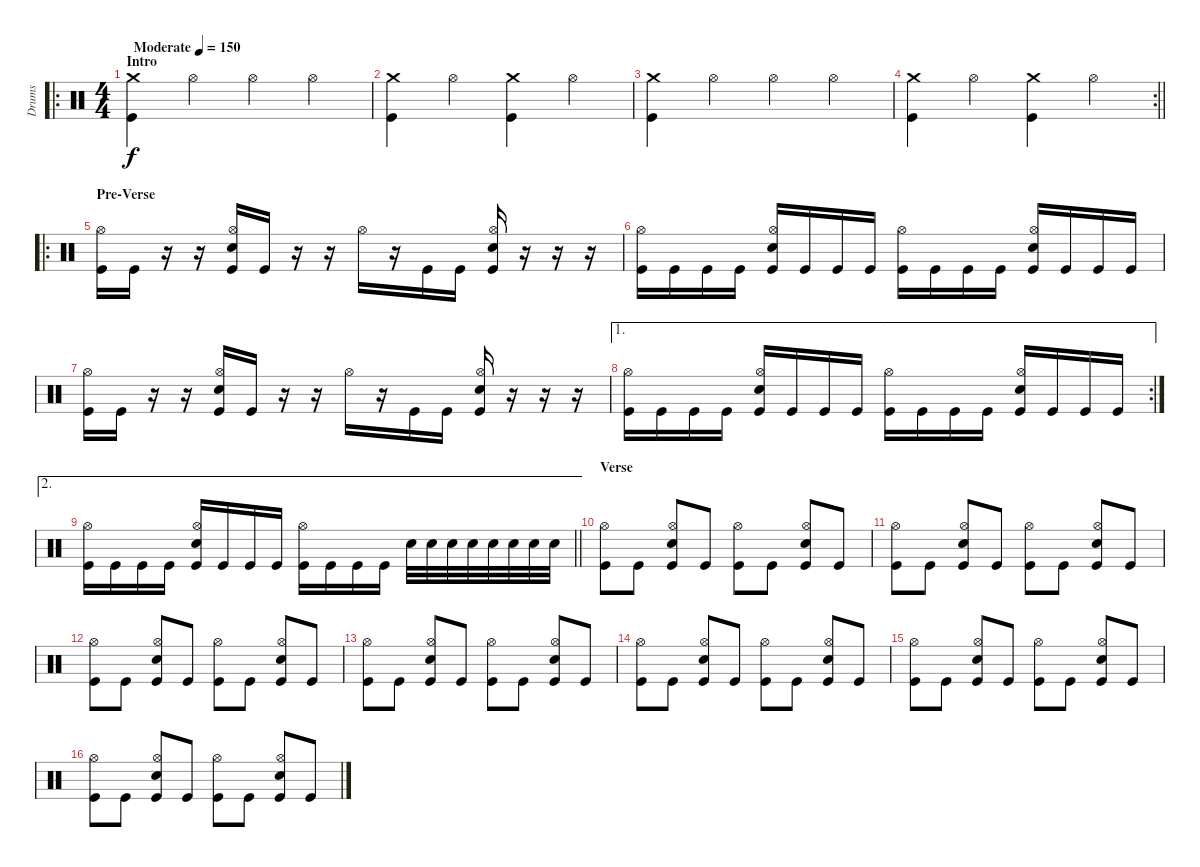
\track ("Drums" "Drums") {instrument percussion}
\staff {score}
\articulation defaults
\ro
\ts (4 4)
\section ("" "Intro")
\tempo (150 "Moderate")
\clef neutral
\ks c
("Crash medium (hit)" "Kick (hit)").4{dy f} "Hi-Hat (open)".4 "Hi-Hat (open)".4 "Hi-Hat (open)".4 |
("Crash medium (hit)" "Kick (hit)").4 "Hi-Hat (open)".4 ("Crash medium (hit)" "Kick (hit)").4 "Hi-Hat (open)".4 |
("Crash medium (hit)" "Kick (hit)").4 "Hi-Hat (open)".4 "Hi-Hat (open)".4 "Hi-Hat (open)".4 |
\rc 2
\barLineRight lightlight
("Crash medium (hit)" "Kick (hit)").4 "Hi-Hat (open)".4 ("Crash medium (hit)" "Kick (hit)").4 "Hi-Hat (open)".4 |
\ro
\section ("" "Pre-Verse")
("Hi-Hat (open)" "Kick (hit)").16 "Kick (hit)".16 r.16 r.16 ("Hi-Hat (open)" "Snare (hit) 2" "Kick (hit)").16 "Kick (hit)".16 r.16 r.16 "Hi-Hat (open)".16 r.16 "Kick (hit)".16 "Kick (hit)".16 ("Hi-Hat (open)" "Snare (hit) 2" "Kick (hit)").16 r.16 r.16 r.16 |
("Hi-Hat (open)" "Kick (hit)").16 "Kick (hit)".16 "Kick (hit)".16 "Kick (hit)".16 ("Hi-Hat (open)" "Snare (hit) 2" "Kick (hit)").16 "Kick (hit)".16 "Kick (hit)".16 "Kick (hit)".16 ("Hi-Hat (open)" "Kick (hit)").16 "Kick (hit)".16 "Kick (hit)".16 "Kick (hit)".16 ("Hi-Hat (open)" "Snare (hit) 2" "Kick (hit)").16 "Kick (hit)".16 "Kick (hit)".16 "Kick (hit)".16 |
("Hi-Hat (open)" "Kick (hit)").16 "Kick (hit)".16 r.16 r.16 ("Hi-Hat (open)" "Snare (hit) 2" "Kick (hit)").16 "Kick (hit)".16 r.16 r.16 "Hi-Hat (open)".16 r.16 "Kick (hit)".16 "Kick (hit)".16 ("Hi-Hat (open)" "Snare (hit) 2" "Kick (hit)").16 r.16 r.16 r.16 |
\ae 1
\rc 2
("Hi-Hat (open)" "Kick (hit)").16 "Kick (hit)".16 "Kick (hit)".16 "Kick (hit)".16 ("Hi-Hat (open)" "Snare (hit) 2" "Kick (hit)").16 "Kick (hit)".16 "Kick (hit)".16 "Kick (hit)".16 ("Hi-Hat (open)" "Kick (hit)").16 "Kick (hit)".16 "Kick (hit)".16 "Kick (hit)".16 ("Hi-Hat (open)" "Snare (hit) 2" "Kick (hit)").16 "Kick (hit)".16 "Kick (hit)".16 "Kick (hit)".16 |
\ae 2
\barLineRight lightlight
("Hi-Hat (open)" "Kick (hit)").16 "Kick (hit)".16 "Kick (hit)".16 "Kick (hit)".16 ("Hi-Hat (open)" "Snare (hit) 2" "Kick (hit)").16 "Kick (hit)".16 "Kick (hit)".16 "Kick (hit)".16 ("Hi-Hat (open)" "Kick (hit)").16 "Kick (hit)".16 "Kick (hit)".16 "Kick (hit)".16 "Snare (hit) 2".32 "Snare (hit) 2".32 "Snare (hit) 2".32 "Snare (hit) 2".32 "Snare (hit) 2".32 "Snare (hit) 2".32 "Snare (hit) 2".32 "Snare (hit) 2".32 |
\section ("" "Verse")
("Hi-Hat (open)" "Kick (hit)").8 "Kick (hit)".8 ("Hi-Hat (open)" "Snare (hit) 2" "Kick (hit)").8 "Kick (hit)".8 ("Hi-Hat (open)" "Kick (hit)").8 "Kick (hit)".8 ("Hi-Hat (open)" "Snare (hit) 2" "Kick (hit)").8 "Kick (hit)".8 |
("Hi-Hat (open)" "Kick (hit)").8 "Kick (hit)".8 ("Hi-Hat (open)" "Snare (hit) 2" "Kick (hit)").8 "Kick (hit)".8 ("Hi-Hat (open)" "Kick (hit)").8 "Kick (hit)".8 ("Hi-Hat (open)" "Snare (hit) 2" "Kick (hit)").8 "Kick (hit)".8 |
("Hi-Hat (open)" "Kick (hit)").8 "Kick (hit)".8 ("Hi-Hat (open)" "Snare (hit) 2" "Kick (hit)").8 "Kick (hit)".8 ("Hi-Hat (open)" "Kick (hit)").8 "Kick (hit)".8 ("Hi-Hat (open)" "Snare (hit) 2" "Kick (hit)").8 "Kick (hit)".8 |
("Hi-Hat (open)" "Kick (hit)").8 "Kick (hit)".8 ("Hi-Hat (open)" "Snare (hit) 2" "Kick (hit)").8 "Kick (hit)".8 ("Hi-Hat (open)" "Kick (hit)").8 "Kick (hit)".8 ("Hi-Hat (open)" "Snare (hit) 2" "Kick (hit)").8 "Kick (hit)".8 |
("Hi-Hat (open)" "Kick (hit)").8 "Kick (hit)".8 ("Hi-Hat (open)" "Snare (hit) 2" "Kick (hit)").8 "Kick (hit)".8 ("Hi-Hat (open)" "Kick (hit)").8 "Kick (hit)".8 ("Hi-Hat (open)" "Snare (hit) 2" "Kick (hit)").8 "Kick (hit)".8 |
("Hi-Hat (open)" "Kick (hit)").8 "Kick (hit)".8 ("Hi-Hat (open)" "Snare (hit) 2" "Kick (hit)").8 "Kick (hit)".8 ("Hi-Hat (open)" "Kick (hit)").8 "Kick (hit)".8 ("Hi-Hat (open)" "Snare (hit) 2" "Kick (hit)").8 "Kick (hit)".8 |
("Hi-Hat (open)" "Kick (hit)").8 "Kick (hit)".8 ("Hi-Hat (open)" "Snare (hit) 2" "Kick (hit)").8 "Kick (hit)".8 ("Hi-Hat (open)" "Kick (hit)").8 "Kick (hit)".8 ("Hi-Hat (open)" "Snare (hit) 2" "Kick (hit)").8 "Kick (hit)".8
